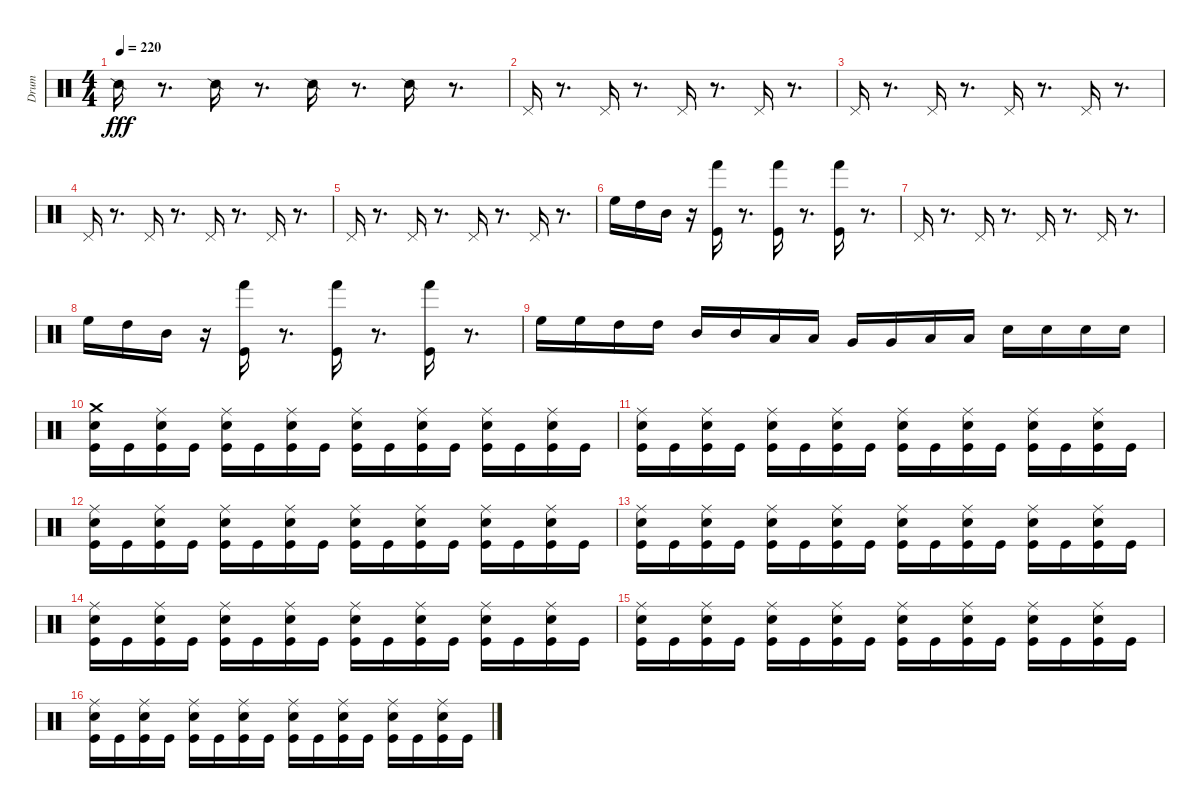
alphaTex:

\track ("Drum" "Drum") {instrument percussion}
\staff {score}
\articulation defaults
\ts (4 4)
\tempo 220
\clef neutral
\ks c "Snare (side stick) 2".16{dy fff}
r.8{d} "Snare (side stick) 2".16 r.8{d} "Snare (side stick) 2".16 r.8{d} "Snare (side stick) 2".16 r.8{d} |
"Pedal Hi-Hat (hit)".16 r.8{d} "Pedal Hi-Hat (hit)".16 r.8{d} "Pedal Hi-Hat (hit)".16 r.8{d} "Pedal Hi-Hat (hit)".16 r.8{d} |
"Pedal Hi-Hat (hit)".16 r.8{d} "Pedal Hi-Hat (hit)".16 r.8{d} "Pedal Hi-Hat (hit)".16 r.8{d} "Pedal Hi-Hat (hit)".16 r.8{d} |
"Pedal Hi-Hat (hit)".16 r.8{d} "Pedal Hi-Hat (hit)".16 r.8{d} "Pedal Hi-Hat (hit)".16 r.8{d} "Pedal Hi-Hat (hit)".16 r.8{d} |
"Pedal Hi-Hat (hit)".16 r.8{d} "Pedal Hi-Hat (hit)".16 r.8{d} "Pedal Hi-Hat (hit)".16 r.8{d} "Pedal Hi-Hat (hit)".16 r.8{d} |
"High Floor Tom (hit)".16 "High Tom (hit)".16 "Mid Tom (hit)".16 r.16 ("Kick (hit)" "Hand (hit)").16 r.8{d} ("Kick (hit)" "Hand (hit)").16 r.8{d} ("Kick (hit)" "Hand (hit)").16 r.8{d} |
"Pedal Hi-Hat (hit)".16 r.8{d} "Pedal Hi-Hat (hit)".16 r.8{d} "Pedal Hi-Hat (hit)".16 r.8{d} "Pedal Hi-Hat (hit)".16 r.8{d} |
"High Floor Tom (hit)".16 "High Tom (hit)".16 "Mid Tom (hit)".16 r.16 ("Kick (hit)" "Hand (hit)").16 r.8{d} ("Kick (hit)" "Hand (hit)").16 r.8{d} ("Kick (hit)" "Hand (hit)").16 r.8{d} |
"High Floor Tom (hit)".16 "High Floor Tom (hit)".16 "High Tom (hit)".16 "High Tom (hit)".16 "Mid Tom (hit)".16 "Mid Tom (hit)".16 "Low Tom (hit)".16 "Low Tom (hit)".16 "Very Low Tom (hit)".16 "Very Low Tom (hit)".16 "Low Floor Tom (hit)".16 "Low Floor Tom (hit)".16 "Snare (hit) 2".16 "Snare (hit) 2".16 "Snare (hit) 2".16 "Snare (hit) 2".16 |
("Kick (hit)" "Snare (hit) 2" "Crash medium (hit)").16 "Kick (hit)".16 ("Ride (middle)" "Snare (hit) 2" "Kick (hit)").16 "Kick (hit)".16 ("Kick (hit)" "Ride (middle)" "Snare (hit) 2").16 "Kick (hit)".16 ("Snare (hit) 2" "Kick (hit)" "Ride (middle)").16 "Kick (hit)".16 ("Kick (hit)" "Snare (hit) 2" "Ride (middle)").16 "Kick (hit)".16 ("Kick (hit)" "Snare (hit) 2" "Ride (middle)").16 "Kick (hit)".16 ("Snare (hit) 2" "Kick (hit)" "Ride (middle)").16 "Kick (hit)".16 ("Ride (middle)" "Kick (hit)" "Snare (hit) 2").16 "Kick (hit)".16 |
("Kick (hit)" "Ride (middle)" "Snare (hit) 2").16 "Kick (hit)".16 ("Ride (middle)" "Snare (hit) 2" "Kick (hit)").16 "Kick (hit)".16 ("Snare (hit) 2" "Ride (middle)" "Kick (hit)").16 "Kick (hit)".16 ("Ride (middle)" "Snare (hit) 2" "Kick (hit)").16 "Kick (hit)".16 ("Kick (hit)" "Snare (hit) 2" "Ride (middle)").16 "Kick (hit)".16 ("Kick (hit)" "Ride (middle)" "Snare (hit) 2").16 "Kick (hit)".16 ("Snare (hit) 2" "Kick (hit)" "Ride (middle)").16 "Kick (hit)".16 ("Kick (hit)" "Snare (hit) 2" "Ride (middle)").16 "Kick (hit)".16 |
("Kick (hit)" "Snare (hit) 2" "Ride (middle)").16 "Kick (hit)".16 ("Kick (hit)" "Snare (hit) 2" "Ride (middle)").16 "Kick (hit)".16 ("Ride (middle)" "Snare (hit) 2" "Kick (hit)").16 "Kick (hit)".16 ("Kick (hit)" "Snare (hit) 2" "Ride (middle)").16 "Kick (hit)".16 ("Ride (middle)" "Kick (hit)" "Snare (hit) 2").16 "Kick (hit)".16 ("Ride (middle)" "Kick (hit)" "Snare (hit) 2").16 "Kick (hit)".16 ("Kick (hit)" "Ride (middle)" "Snare (hit) 2").16 "Kick (hit)".16 ("Ride (middle)" "Kick (hit)" "Snare (hit) 2").16 "Kick (hit)".16 |
("Ride (middle)" "Kick (hit)" "Snare (hit) 2").16 "Kick (hit)".16 ("Kick (hit)" "Snare (hit) 2" "Ride (middle)").16 "Kick (hit)".16 ("Ride (middle)" "Kick (hit)" "Snare (hit) 2").16 "Kick (hit)".16 ("Kick (hit)" "Snare (hit) 2" "Ride (middle)").16 "Kick (hit)".16 ("Kick (hit)" "Ride (middle)" "Snare (hit) 2").16 "Kick (hit)".16 ("Ride (middle)" "Kick (hit)" "Snare (hit) 2").16 "Kick (hit)".16 ("Snare (hit) 2" "Kick (hit)" "Ride (middle)").16 "Kick (hit)".16 ("Kick (hit)" "Ride (middle)" "Snare (hit) 2").16 "Kick (hit)".16 |
("Snare (hit) 2" "Ride (middle)" "Kick (hit)").16 "Kick (hit)".16 ("Snare (hit) 2" "Kick (hit)" "Ride (middle)").16 "Kick (hit)".16 ("Kick (hit)" "Snare (hit) 2" "Ride (middle)").16 "Kick (hit)".16 ("Ride (middle)" "Snare (hit) 2" "Kick (hit)").16 "Kick (hit)".16 ("Kick (hit)" "Snare (hit) 2" "Ride (middle)").16 "Kick (hit)".16 ("Snare (hit) 2" "Ride (middle)" "Kick (hit)").16 "Kick (hit)".16 ("Snare (hit) 2" "Kick (hit)" "Ride (middle)").16 "Kick (hit)".16 ("Snare (hit) 2" "Kick (hit)" "Ride (middle)").16 "Kick (hit)".16 |
("Ride (middle)" "Snare (hit) 2" "Kick (hit)").16 "Kick (hit)".16 ("Snare (hit) 2" "Ride (middle)" "Kick (hit)").16 "Kick (hit)".16 ("Kick (hit)" "Ride (middle)" "Snare (hit) 2").16 "Kick (hit)".16 ("Snare (hit) 2" "Ride (middle)" "Kick (hit)").16 "Kick (hit)".16 ("Kick (hit)" "Snare (hit) 2" "Ride (middle)").16 "Kick (hit)".16 ("Kick (hit)" "Ride (middle)" "Snare (hit) 2").16 "Kick (hit)".16 ("Ride (middle)" "Kick (hit)" "Snare (hit) 2").16 "Kick (hit)".16 ("Kick (hit)" "Ride (middle)" "Snare (hit) 2").16 "Kick (hit)".16 |
("Kick (hit)" "Ride (middle)" "Snare (hit) 2").16 "Kick (hit)".16 ("Ride (middle)" "Kick (hit)" "Snare (hit) 2").16 "Kick (hit)".16 ("Snare (hit) 2" "Kick (hit)" "Ride (middle)").16 "Kick (hit)".16 ("Kick (hit)" "Ride (middle)" "Snare (hit) 2").16 "Kick (hit)".16 ("Snare (hit) 2" "Kick (hit)" "Ride (middle)").16 "Kick (hit)".16 ("Kick (hit)" "Ride (middle)" "Snare (hit) 2").16 "Kick (hit)".16 ("Snare (hit) 2" "Ride (middle)" "Kick (hit)").16 "Kick (hit)".16 ("Ride (middle)" "Snare (hit) 2" "Kick (hit)").16 "Kick (hit)".16
